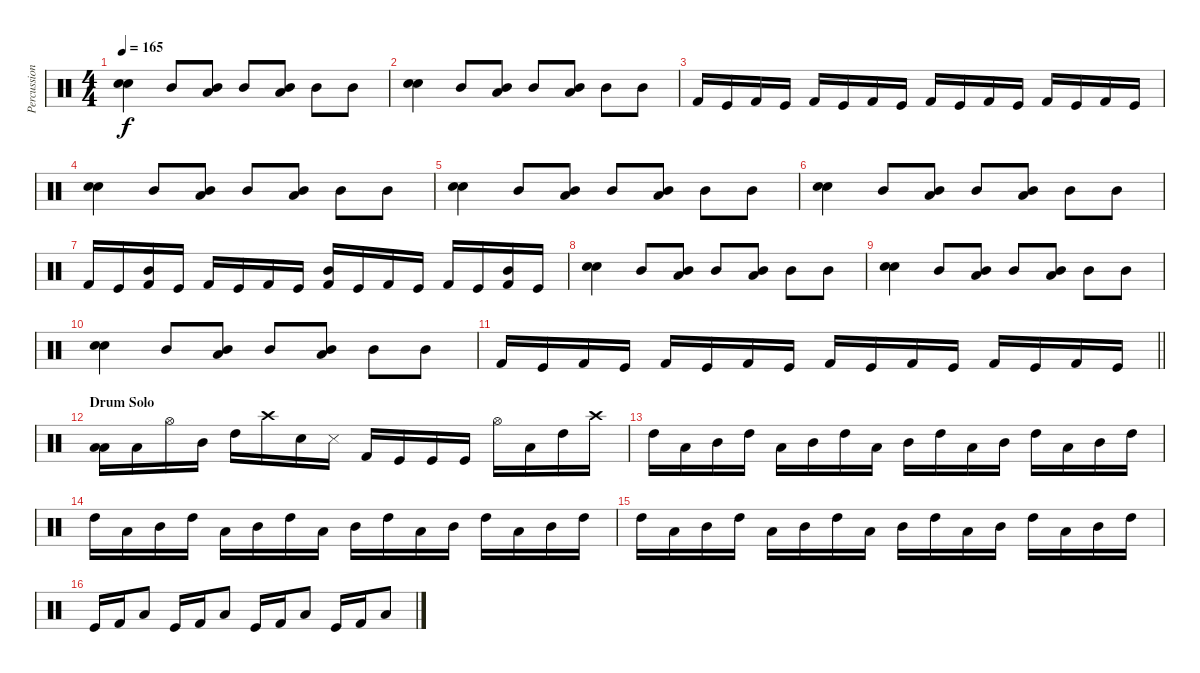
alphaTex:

\track ("Percussion" "Percussion") {instrument percussion}
\staff {score}
\articulation defaults
\ts (4 4)
\tempo 165
\clef neutral
\ks c
("Electric Snare (hit)" "Snare (hit) 2").4{dy f} "Mid Tom (hit)".8 ("Low Tom (hit)" "Mid Tom (hit)").8 "Mid Tom (hit)".8 ("Low Tom (hit)" "Mid Tom (hit)").8 "Mid Tom (hit)".8 "Mid Tom (hit)".8 |
("Electric Snare (hit)" "Snare (hit) 2").4 "Mid Tom (hit)".8 ("Low Tom (hit)" "Mid Tom (hit)").8 "Mid Tom (hit)".8 ("Low Tom (hit)" "Mid Tom (hit)").8 "Mid Tom (hit)".8 "Mid Tom (hit)".8 |
"Kick (hit) 2".16 "Kick (hit)".16 "Kick (hit) 2".16 "Kick (hit)".16 "Kick (hit) 2".16 "Kick (hit)".16 "Kick (hit) 2".16 "Kick (hit)".16 "Kick (hit) 2".16 "Kick (hit)".16 "Kick (hit) 2".16 "Kick (hit)".16 "Kick (hit) 2".16 "Kick (hit)".16 "Kick (hit) 2".16 "Kick (hit)".16 |
("Electric Snare (hit)" "Snare (hit) 2").4 "Mid Tom (hit)".8 ("Low Tom (hit)" "Mid Tom (hit)").8 "Mid Tom (hit)".8 ("Low Tom (hit)" "Mid Tom (hit)").8 "Mid Tom (hit)".8 "Mid Tom (hit)".8 |
("Electric Snare (hit)" "Snare (hit) 2").4 "Mid Tom (hit)".8 ("Low Tom (hit)" "Mid Tom (hit)").8 "Mid Tom (hit)".8 ("Low Tom (hit)" "Mid Tom (hit)").8 "Mid Tom (hit)".8 "Mid Tom (hit)".8 |
("Electric Snare (hit)" "Snare (hit) 2").4 "Mid Tom (hit)".8 ("Low Tom (hit)" "Mid Tom (hit)").8 "Mid Tom (hit)".8 ("Low Tom (hit)" "Mid Tom (hit)").8 "Mid Tom (hit)".8 "Mid Tom (hit)".8 |
"Kick (hit) 2".16 "Kick (hit)".16 ("Kick (hit) 2" "Mid Tom (hit)").16 "Kick (hit)".16 "Kick (hit) 2".16 "Kick (hit)".16 "Kick (hit) 2".16 "Kick (hit)".16 ("Kick (hit) 2" "Mid Tom (hit)").16 "Kick (hit)".16 "Kick (hit) 2".16 "Kick (hit)".16 "Kick (hit) 2".16 "Kick (hit)".16 ("Kick (hit) 2" "Mid Tom (hit)").16 "Kick (hit)".16 |
("Electric Snare (hit)" "Snare (hit) 2").4 "Mid Tom (hit)".8 ("Low Tom (hit)" "Mid Tom (hit)").8 "Mid Tom (hit)".8 ("Low Tom (hit)" "Mid Tom (hit)").8 "Mid Tom (hit)".8 "Mid Tom (hit)".8 |
("Electric Snare (hit)" "Snare (hit) 2").4 "Mid Tom (hit)".8 ("Low Tom (hit)" "Mid Tom (hit)").8 "Mid Tom (hit)".8 ("Low Tom (hit)" "Mid Tom (hit)").8 "Mid Tom (hit)".8 "Mid Tom (hit)".8 |
("Electric Snare (hit)" "Snare (hit) 2").4 "Mid Tom (hit)".8 ("Low Tom (hit)" "Mid Tom (hit)").8 "Mid Tom (hit)".8 ("Low Tom (hit)" "Mid Tom (hit)").8 "Mid Tom (hit)".8 "Mid Tom (hit)".8 |
\barLineRight lightlight "Kick (hit) 2".16 "Kick (hit)".16 "Kick (hit) 2".16 "Kick (hit)".16 "Kick (hit) 2".16 "Kick (hit)".16 "Kick (hit) 2".16 "Kick (hit)".16 "Kick (hit) 2".16 "Kick (hit)".16 "Kick (hit) 2".16 "Kick (hit)".16 "Kick (hit) 2".16 "Kick (hit)".16 "Kick (hit) 2".16 "Kick (hit)".16
|
\section ("" "Drum Solo")
("Low Tom (hit)" "Low Tom (hit)").16 "Low Tom (hit)".16 "Hi-Hat (open)".16 "Mid Tom (hit)".16 "High Tom (hit)".16 "Crash high (hit)".16 "Snare (hit) 2".16 "Snare (side stick) 3".16 "Kick (hit) 2".16 "Kick (hit)".16 "Kick (hit)".16 "Kick (hit)".16 "Hi-Hat (open)".16 "Low Tom (hit)".16 "High Tom (hit)".16 "Crash high (hit)".16 |
"High Tom (hit)".16 "Low Tom (hit)".16 "Mid Tom (hit)".16 "High Tom (hit)".16 "Low Tom (hit)".16 "Mid Tom (hit)".16 "High Tom (hit)".16 "Low Tom (hit)".16 "Mid Tom (hit)".16 "High Tom (hit)".16 "Low Tom (hit)".16 "Mid Tom (hit)".16 "High Tom (hit)".16 "Low Tom (hit)".16 "Mid Tom (hit)".16 "High Tom (hit)".16 |
"High Tom (hit)".16 "Low Tom (hit)".16 "Mid Tom (hit)".16 "High Tom (hit)".16 "Low Tom (hit)".16 "Mid Tom (hit)".16 "High Tom (hit)".16 "Low Tom (hit)".16 "Mid Tom (hit)".16 "High Tom (hit)".16 "Low Tom (hit)".16 "Mid Tom (hit)".16 "High Tom (hit)".16 "Low Tom (hit)".16 "Mid Tom (hit)".16 "High Tom (hit)".16 |
"High Tom (hit)".16 "Low Tom (hit)".16 "Mid Tom (hit)".16 "High Tom (hit)".16 "Low Tom (hit)".16 "Mid Tom (hit)".16 "High Tom (hit)".16 "Low Tom (hit)".16 "Mid Tom (hit)".16 "High Tom (hit)".16 "Low Tom (hit)".16 "Mid Tom (hit)".16 "High Tom (hit)".16 "Low Tom (hit)".16 "Mid Tom (hit)".16 "High Tom (hit)".16 |
"Kick (hit)".16 "Kick (hit) 2".16 "Low Tom (hit)".8 "Kick (hit)".16 "Kick (hit) 2".16 "Low Tom (hit)".8 "Kick (hit)".16 "Kick (hit) 2".16 "Low Tom (hit)".8 "Kick (hit)".16 "Kick (hit) 2".16 "Low Tom (hit)".8
